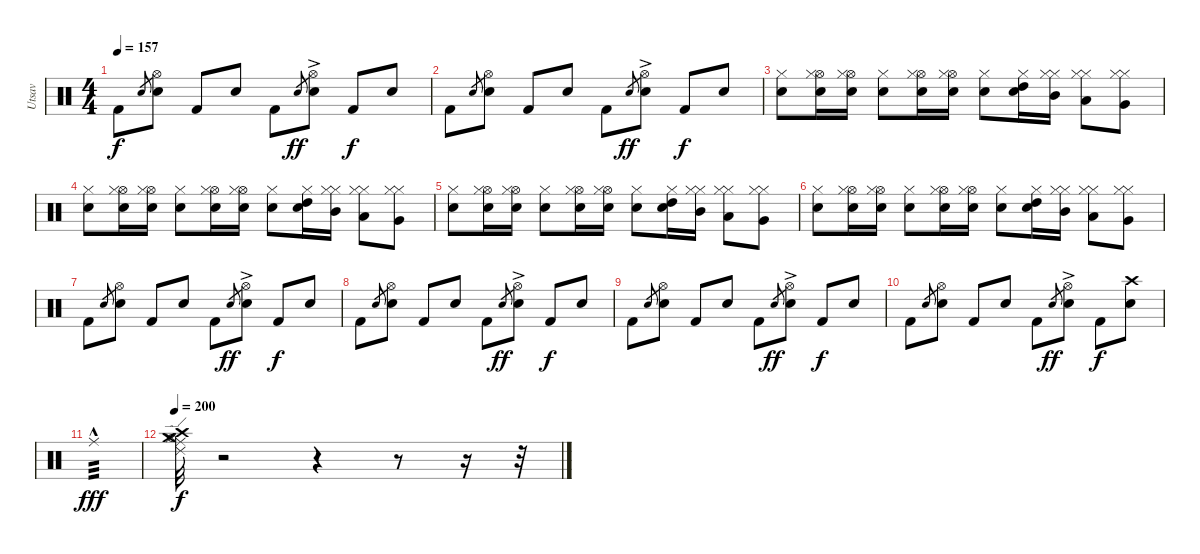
\track ("Utsav" "Utsav") {instrument percussion}
\staff {score}
\articulation defaults
\ts (4 4)
\tempo 157
\clef neutral
\ks c "Kick (hit) 2".8{dy f} "Electric Snare (hit)".8{gr}
("Snare (hit) 2" "Hi-Hat (open)").8 "Kick (hit) 2".8 "Snare (hit) 2".8 "Kick (hit) 2".8 "Electric Snare (hit)".8{gr dy ff} ("Snare (hit) 2" "Hi-Hat (open)"{ac}).8 "Kick (hit) 2".8{dy f} "Snare (hit) 2".8 |
"Kick (hit) 2".8 "Electric Snare (hit)".8{gr} ("Snare (hit) 2" "Hi-Hat (open)").8 "Kick (hit) 2".8 "Snare (hit) 2".8 "Kick (hit) 2".8 "Electric Snare (hit)".8{gr dy ff} ("Snare (hit) 2" "Hi-Hat (open)"{ac}).8 "Kick (hit) 2".8{dy f} "Snare (hit) 2".8 |
("Electric Snare (hit)" "Hi-Hat (closed)").8 ("Hi-Hat (open)" "Snare (hit) 2" "Hi-Hat (closed)").16 ("Hi-Hat (open)" "Snare (hit) 2" "Hi-Hat (closed)").16 ("Electric Snare (hit)" "Hi-Hat (closed)").8 ("Hi-Hat (open)" "Snare (hit) 2" "Hi-Hat (closed)").16 ("Hi-Hat (open)" "Snare (hit) 2" "Hi-Hat (closed)").16 ("Electric Snare (hit)" "Hi-Hat (closed)").8 ("Hi-Hat (closed)" "High Tom (hit)" "Snare (hit)").16 ("Hi-Hat (closed)" "Mid Tom (hit)" "Hi-Hat (closed)").16 ("Hi-Hat (closed)" "Low Tom (hit)" "Hi-Hat (closed)").8 ("Hi-Hat (closed)" "Very Low Tom (hit)" "Hi-Hat (closed)").8 |
("Electric Snare (hit)" "Hi-Hat (closed)").8 ("Hi-Hat (open)" "Snare (hit) 2" "Hi-Hat (closed)").16 ("Hi-Hat (open)" "Snare (hit) 2" "Hi-Hat (closed)").16 ("Electric Snare (hit)" "Hi-Hat (closed)").8 ("Hi-Hat (open)" "Snare (hit) 2" "Hi-Hat (closed)").16 ("Hi-Hat (open)" "Snare (hit) 2" "Hi-Hat (closed)").16 ("Electric Snare (hit)" "Hi-Hat (closed)").8 ("Hi-Hat (closed)" "High Tom (hit)" "Snare (hit)").16 ("Hi-Hat (closed)" "Mid Tom (hit)" "Hi-Hat (closed)").16 ("Hi-Hat (closed)" "Low Tom (hit)" "Hi-Hat (closed)").8 ("Hi-Hat (closed)" "Very Low Tom (hit)" "Hi-Hat (closed)").8 |
("Electric Snare (hit)" "Hi-Hat (closed)").8 ("Hi-Hat (open)" "Snare (hit) 2" "Hi-Hat (closed)").16 ("Hi-Hat (open)" "Snare (hit) 2" "Hi-Hat (closed)").16 ("Electric Snare (hit)" "Hi-Hat (closed)").8 ("Hi-Hat (open)" "Snare (hit) 2" "Hi-Hat (closed)").16 ("Hi-Hat (open)" "Snare (hit) 2" "Hi-Hat (closed)").16 ("Electric Snare (hit)" "Hi-Hat (closed)").8 ("Hi-Hat (closed)" "High Tom (hit)" "Snare (hit)").16 ("Hi-Hat (closed)" "Mid Tom (hit)" "Hi-Hat (closed)").16 ("Hi-Hat (closed)" "Low Tom (hit)" "Hi-Hat (closed)").8 ("Hi-Hat (closed)" "Very Low Tom (hit)" "Hi-Hat (closed)").8 |
("Electric Snare (hit)" "Hi-Hat (closed)").8 ("Hi-Hat (open)" "Snare (hit) 2" "Hi-Hat (closed)").16 ("Hi-Hat (open)" "Snare (hit) 2" "Hi-Hat (closed)").16 ("Electric Snare (hit)" "Hi-Hat (closed)").8 ("Hi-Hat (open)" "Snare (hit) 2" "Hi-Hat (closed)").16 ("Hi-Hat (open)" "Snare (hit) 2" "Hi-Hat (closed)").16 ("Electric Snare (hit)" "Hi-Hat (closed)").8 ("Hi-Hat (closed)" "High Tom (hit)" "Snare (hit)").16 ("Hi-Hat (closed)" "Mid Tom (hit)" "Hi-Hat (closed)").16 ("Hi-Hat (closed)" "Low Tom (hit)" "Hi-Hat (closed)").8 ("Hi-Hat (closed)" "Very Low Tom (hit)" "Hi-Hat (closed)").8 |
"Kick (hit) 2".8 "Electric Snare (hit)".8{gr} ("Snare (hit) 2" "Hi-Hat (open)").8 "Kick (hit) 2".8 "Snare (hit) 2".8 "Kick (hit) 2".8 "Electric Snare (hit)".8{gr dy ff} ("Snare (hit) 2" "Hi-Hat (open)"{ac}).8 "Kick (hit) 2".8{dy f} "Snare (hit) 2".8 |
"Kick (hit) 2".8 "Electric Snare (hit)".8{gr} ("Snare (hit) 2" "Hi-Hat (open)").8 "Kick (hit) 2".8 "Snare (hit) 2".8 "Kick (hit) 2".8 "Electric Snare (hit)".8{gr dy ff} ("Snare (hit) 2" "Hi-Hat (open)"{ac}).8 "Kick (hit) 2".8{dy f} "Snare (hit) 2".8 |
"Kick (hit) 2".8 "Electric Snare (hit)".8{gr} ("Snare (hit) 2" "Hi-Hat (open)").8 "Kick (hit) 2".8 "Snare (hit) 2".8 "Kick (hit) 2".8 "Electric Snare (hit)".8{gr dy ff} ("Snare (hit) 2" "Hi-Hat (open)"{ac}).8 "Kick (hit) 2".8{dy f} "Snare (hit) 2".8 |
"Kick (hit) 2".8 "Electric Snare (hit)".8{gr} ("Snare (hit) 2" "Hi-Hat (open)").8 "Kick (hit) 2".8 "Snare (hit) 2".8 "Kick (hit) 2".8 "Electric Snare (hit)".8{gr dy ff} ("Snare (hit) 2" "Hi-Hat (open)"{ac}).8 "Kick (hit) 2".8{dy f} ("Snare (hit) 2" "Crash high (hit)").8 |
"Ride (middle)"{hac}.1{tp 3 dy fff} |
\tempo 200
("Crash medium (hit)" "Crash high (hit)" "Hi-Hat (open)" "Ride (edge) 2" "Ride (middle)" "Hi-Hat (closed)").32{dy f} r.2 r.4 r.8 r.16 r.32
